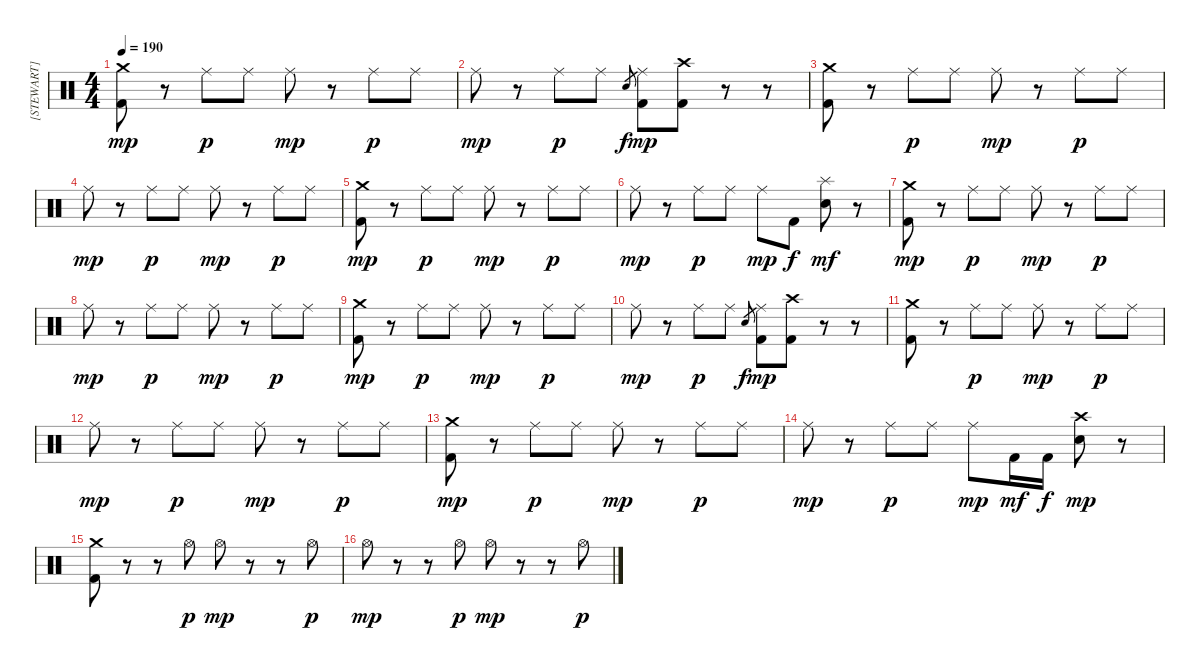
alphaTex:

\track ("[STEWART]" "[STEWART]") {instrument percussion}
\staff {score}
\articulation defaults
\ts (4 4)
\tempo 190
\clef neutral
\ks c
("Crash medium (hit)" "Kick (hit) 2").8{dy mp} r.8 "Ride (middle)".8{dy p} "Ride (middle)".8 "Ride (middle)".8{dy mp} r.8 "Ride (middle)".8{dy p} "Ride (middle)".8 |
"Ride (middle)".8{dy mp} r.8 "Ride (middle)".8{dy p} "Ride (middle)".8 "Electric Snare (hit)".8{gr dy f} ("Ride (middle)" "Kick (hit) 2").8{dy mp} ("Crash high (hit)" "Kick (hit) 2").8 r.8 r.8 |
("Crash medium (hit)" "Kick (hit) 2").8 r.8 "Ride (middle)".8{dy p} "Ride (middle)".8 "Ride (middle)".8{dy mp} r.8 "Ride (middle)".8{dy p} "Ride (middle)".8 |
"Ride (middle)".8{dy mp} r.8 "Ride (middle)".8{dy p} "Ride (middle)".8 "Ride (middle)".8{dy mp} r.8 "Ride (middle)".8{dy p} "Ride (middle)".8 |
("Crash medium (hit)" "Kick (hit) 2").8{dy mp} r.8 "Ride (middle)".8{dy p} "Ride (middle)".8 "Ride (middle)".8{dy mp} r.8 "Ride (middle)".8{dy p} "Ride (middle)".8 |
"Ride (middle)".8{dy mp} r.8 "Ride (middle)".8{dy p} "Ride (middle)".8 "Ride (middle)".8{dy mp} "Kick (hit) 2".8{dy f} ("Splash (hit)" "Electric Snare (hit)").8{dy mf} r.8 |
("Crash medium (hit)" "Kick (hit) 2").8{dy mp} r.8 "Ride (middle)".8{dy p} "Ride (middle)".8 "Ride (middle)".8{dy mp} r.8 "Ride (middle)".8{dy p} "Ride (middle)".8 |
"Ride (middle)".8{dy mp} r.8 "Ride (middle)".8{dy p} "Ride (middle)".8 "Ride (middle)".8{dy mp} r.8 "Ride (middle)".8{dy p} "Ride (middle)".8 |
("Crash medium (hit)" "Kick (hit) 2").8{dy mp} r.8 "Ride (middle)".8{dy p} "Ride (middle)".8 "Ride (middle)".8{dy mp} r.8 "Ride (middle)".8{dy p} "Ride (middle)".8 |
"Ride (middle)".8{dy mp} r.8 "Ride (middle)".8{dy p} "Ride (middle)".8 "Electric Snare (hit)".8{gr dy f} ("Ride (middle)" "Kick (hit) 2").8{dy mp} ("Crash high (hit)" "Kick (hit) 2").8 r.8 r.8 |
("Crash medium (hit)" "Kick (hit) 2").8 r.8 "Ride (middle)".8{dy p} "Ride (middle)".8 "Ride (middle)".8{dy mp} r.8 "Ride (middle)".8{dy p} "Ride (middle)".8 |
"Ride (middle)".8{dy mp} r.8 "Ride (middle)".8{dy p} "Ride (middle)".8 "Ride (middle)".8{dy mp} r.8 "Ride (middle)".8{dy p} "Ride (middle)".8 |
("Crash medium (hit)" "Kick (hit) 2").8{dy mp} r.8 "Ride (middle)".8{dy p} "Ride (middle)".8 "Ride (middle)".8{dy mp} r.8 "Ride (middle)".8{dy p} "Ride (middle)".8 |
"Ride (middle)".8{dy mp} r.8 "Ride (middle)".8{dy p} "Ride (middle)".8 "Ride (middle)".8{dy mp} "Kick (hit) 2".16{dy mf} "Kick (hit) 2".16{dy f} ("Crash high (hit)" "Electric Snare (hit)").8{dy mp} r.8 |
("Crash medium (hit)" "Kick (hit) 2").8 r.8 r.8 "Hi-Hat (open)".8{dy p} "Hi-Hat (open)".8{dy mp} r.8 r.8 "Hi-Hat (open)".8{dy p} |
"Hi-Hat (open)".8{dy mp} r.8 r.8 "Hi-Hat (open)".8{dy p} "Hi-Hat (open)".8{dy mp} r.8 r.8 "Hi-Hat (open)".8{dy p}
